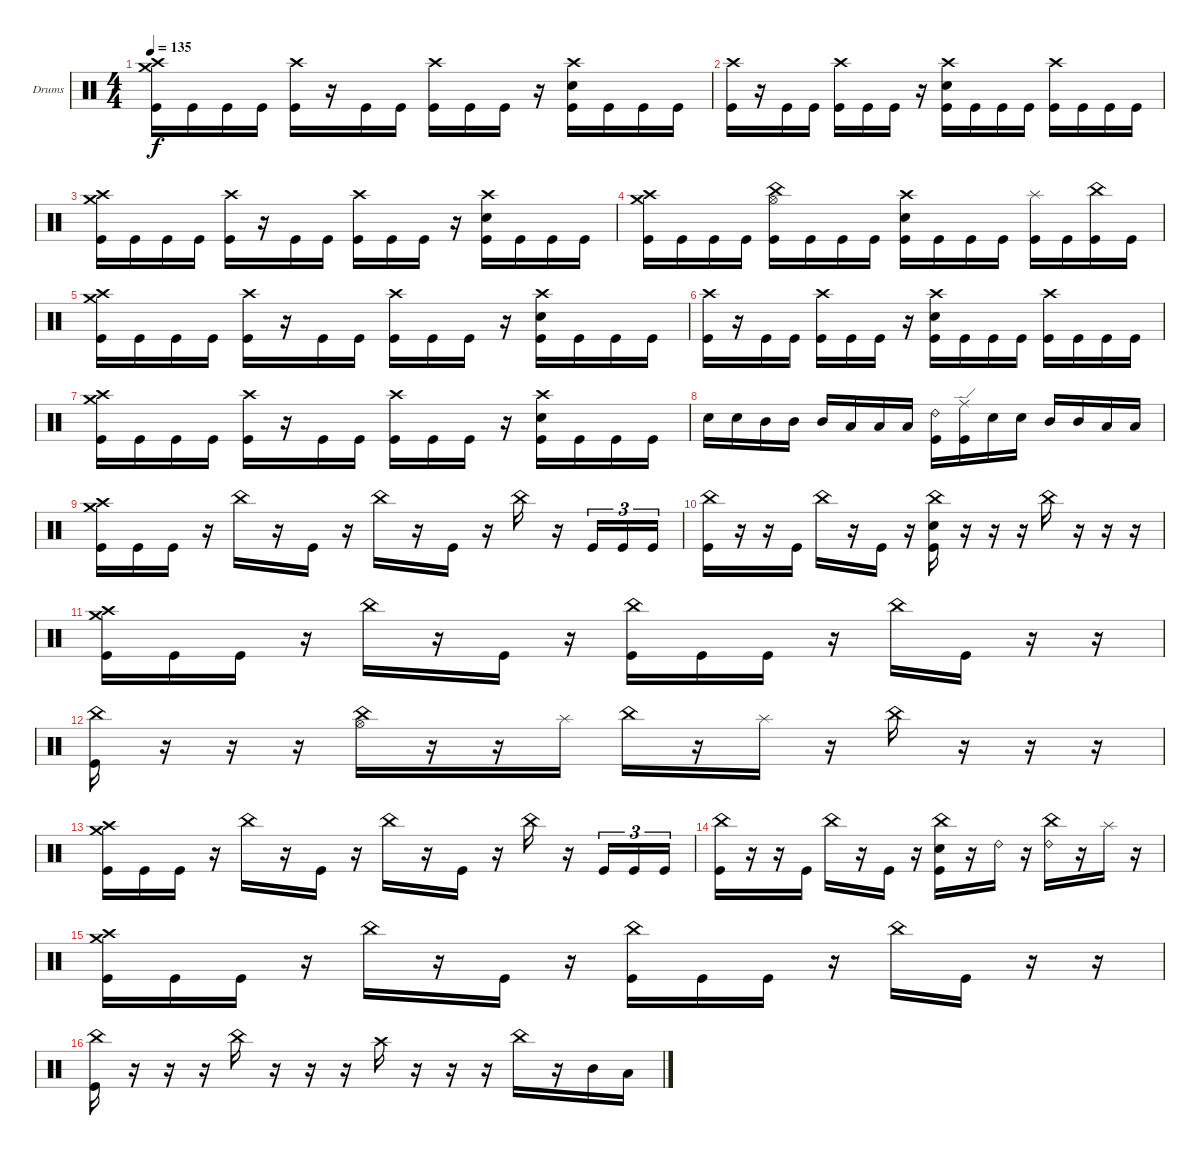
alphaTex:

\bracketExtendMode groupsimilarinstruments
\firstSystemTrackNameOrientation horizontal
\otherSystemsTrackNameOrientation horizontal
\track ("Drumkit" "Drums") {instrument percussion}
\staff {score}
\articulation defaults
\ts (4 4)
\tempo 135
\clef neutral
\ks c
("Crash medium (hit)" "Crash high (hit)" "Kick (hit)").16{dy f} "Kick (hit)".16 "Kick (hit)".16 "Kick (hit)".16 ("Crash high (hit)" "Kick (hit)").16 r.16 "Kick (hit)".16 "Kick (hit)".16 ("Crash high (hit)" "Kick (hit)").16 "Kick (hit)".16 "Kick (hit)".16 r.16 ("Crash high (hit)" "Snare (hit) 2" "Kick (hit)").16 "Kick (hit)".16 "Kick (hit)".16 "Kick (hit)".16 |
("Crash high (hit)" "Kick (hit)").16 r.16 "Kick (hit)".16 "Kick (hit)".16 ("Crash high (hit)" "Kick (hit)").16 "Kick (hit)".16 "Kick (hit)".16 r.16 ("Crash high (hit)" "Snare (hit) 2" "Kick (hit)").16 "Kick (hit)".16 "Kick (hit)".16 "Kick (hit)".16 ("Crash high (hit)" "Kick (hit)").16 "Kick (hit)".16 "Kick (hit)".16 "Kick (hit)".16 |
("Crash medium (hit)" "Crash high (hit)" "Kick (hit)").16 "Kick (hit)".16 "Kick (hit)".16 "Kick (hit)".16 ("Crash high (hit)" "Kick (hit)").16 r.16 "Kick (hit)".16 "Kick (hit)".16 ("Crash high (hit)" "Kick (hit)").16 "Kick (hit)".16 "Kick (hit)".16 r.16 ("Crash high (hit)" "Snare (hit) 2" "Kick (hit)").16 "Kick (hit)".16 "Kick (hit)".16 "Kick (hit)".16 |
("Crash medium (hit)" "Crash high (hit)" "Kick (hit)").16 "Kick (hit)".16 "Kick (hit)".16 "Kick (hit)".16 ("China (hit)" "Hi-Hat (open)" "Kick (hit)").16 "Kick (hit)".16 "Kick (hit)".16 "Kick (hit)".16 ("Crash high (hit)" "Snare (hit) 2" "Kick (hit)").16 "Kick (hit)".16 "Kick (hit)".16 "Kick (hit)".16 ("Splash (hit)" "Kick (hit)").16 "Kick (hit)".16 ("China (hit)" "Kick (hit)").16 "Kick (hit)".16 |
("Crash medium (hit)" "Crash high (hit)" "Kick (hit)").16 "Kick (hit)".16 "Kick (hit)".16 "Kick (hit)".16 ("Crash high (hit)" "Kick (hit)").16 r.16 "Kick (hit)".16 "Kick (hit)".16 ("Crash high (hit)" "Kick (hit)").16 "Kick (hit)".16 "Kick (hit)".16 r.16 ("Crash high (hit)" "Snare (hit) 2" "Kick (hit)").16 "Kick (hit)".16 "Kick (hit)".16 "Kick (hit)".16 |
("Crash high (hit)" "Kick (hit)").16 r.16 "Kick (hit)".16 "Kick (hit)".16 ("Crash high (hit)" "Kick (hit)").16 "Kick (hit)".16 "Kick (hit)".16 r.16 ("Crash high (hit)" "Snare (hit) 2" "Kick (hit)").16 "Kick (hit)".16 "Kick (hit)".16 "Kick (hit)".16 ("Crash high (hit)" "Kick (hit)").16 "Kick (hit)".16 "Kick (hit)".16 "Kick (hit)".16 |
("Crash medium (hit)" "Crash high (hit)" "Kick (hit)").16 "Kick (hit)".16 "Kick (hit)".16 "Kick (hit)".16 ("Crash high (hit)" "Kick (hit)").16 r.16 "Kick (hit)".16 "Kick (hit)".16 ("Crash high (hit)" "Kick (hit)").16 "Kick (hit)".16 "Kick (hit)".16 r.16 ("Crash high (hit)" "Snare (hit) 2" "Kick (hit)").16 "Kick (hit)".16 "Kick (hit)".16 "Kick (hit)".16 |
"Snare (hit) 2".16 "Snare (hit) 2".16 "Mid Tom (hit)".16 "Mid Tom (hit)".16 "Mid Tom (hit)".16 "Low Tom (hit)".16 "Low Tom (hit)".16 "Low Tom (hit)".16 ("Ride (bell) 2" "Kick (hit)").16 ("Ride (edge)" "Kick (hit)").16 "Snare (hit) 2".16 "Snare (hit) 2".16 "Mid Tom (hit)".16 "Mid Tom (hit)".16 "Low Tom (hit)".16 "Low Tom (hit)".16 |
("Crash medium (hit)" "Crash high (hit)" "Kick (hit)").16 "Kick (hit)".16 "Kick (hit)".16 r.16 "China (hit)".16 r.16 "Kick (hit)".16 r.16 "China (hit)".16 r.16 "Kick (hit)".16 r.16 "China (hit)".16 r.16 "Kick (hit)".16{tu (3 2)} "Kick (hit)".16{tu (3 2)} "Kick (hit)".16{tu (3 2)} |
("China (hit)" "Kick (hit)").16 r.16 r.16 "Kick (hit)".16 "China (hit)".16 r.16 "Kick (hit)".16 r.16 ("China (hit)" "Snare (hit) 2" "Kick (hit)").16 r.16 r.16 r.16 "China (hit)".16 r.16 r.16 r.16 |
("Crash medium (hit)" "Crash high (hit)" "Kick (hit)").16 "Kick (hit)".16 "Kick (hit)".16 r.16 "China (hit)".16 r.16 "Kick (hit)".16 r.16 ("China (hit)" "Kick (hit)").16 "Kick (hit)".16 "Kick (hit)".16 r.16 "China (hit)".16 "Kick (hit)".16 r.16 r.16 |
("China (hit)" "Kick (hit)").16 r.16 r.16 r.16 ("China (hit)" "Hi-Hat (open)").16 r.16 r.16 "Splash (hit)".16 "China (hit)".16 r.16 "Splash (hit)".16 r.16 "China (hit)".16 r.16 r.16 r.16 |
("Crash medium (hit)" "Crash high (hit)" "Kick (hit)").16 "Kick (hit)".16 "Kick (hit)".16 r.16 "China (hit)".16 r.16 "Kick (hit)".16 r.16 "China (hit)".16 r.16 "Kick (hit)".16 r.16 "China (hit)".16 r.16 "Kick (hit)".16{tu (3 2)} "Kick (hit)".16{tu (3 2)} "Kick (hit)".16{tu (3 2)} |
("China (hit)" "Kick (hit)").16 r.16 r.16 "Kick (hit)".16 "China (hit)".16 r.16 "Kick (hit)".16 r.16 ("China (hit)" "Snare (hit) 2" "Kick (hit)").16 r.16 "Ride (bell) 2".16 r.16 ("China (hit)" "Ride (bell) 2").16 r.16 "Splash (hit)".16 r.16 |
("Crash medium (hit)" "Crash high (hit)" "Kick (hit)").16 "Kick (hit)".16 "Kick (hit)".16 r.16 "China (hit)".16 r.16 "Kick (hit)".16 r.16 ("China (hit)" "Kick (hit)").16 "Kick (hit)".16 "Kick (hit)".16 r.16 "China (hit)".16 "Kick (hit)".16 r.16 r.16 |
("China (hit)" "Kick (hit)").16 r.16 r.16 r.16 "China (hit)".16 r.16 r.16 r.16 "Crash high (hit)".16 r.16 r.16 r.16 "China (hit)".16 r.16 "Mid Tom (hit)".16 "Low Tom (hit)".16
